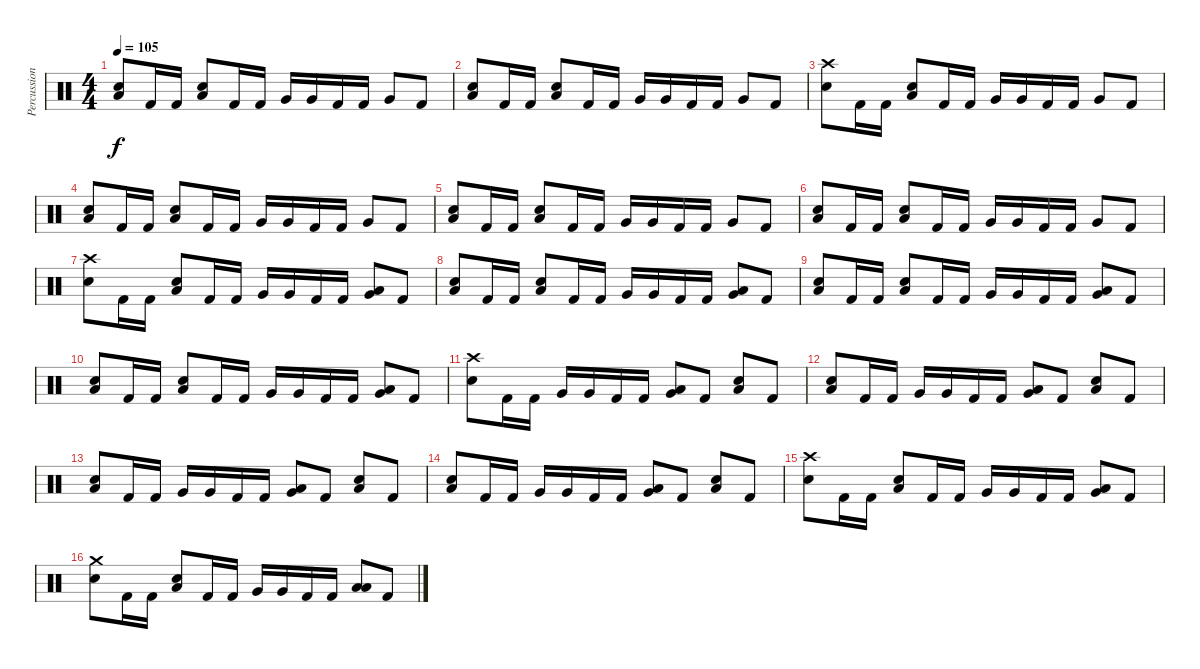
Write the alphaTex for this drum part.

\track ("Percussion" "Percussion") {instrument percussion}
\staff {score}
\articulation defaults
\ts (4 4)
\tempo 105
\clef neutral
\ks c
("Low Floor Tom (hit)" "Snare (hit) 2").8{dy f volume 0} "Kick (hit) 2".16{volume 16} "Kick (hit) 2".16 ("Low Floor Tom (hit)" "Snare (hit) 2").8 "Kick (hit) 2".16 "Kick (hit) 2".16 "Very Low Tom (hit)".16 "Very Low Tom (hit)".16 "Kick (hit) 2".16 "Kick (hit) 2".16 "Very Low Tom (hit)".8 "Kick (hit) 2".8 |
("Low Floor Tom (hit)" "Snare (hit) 2").8 "Kick (hit) 2".16 "Kick (hit) 2".16 ("Low Floor Tom (hit)" "Snare (hit) 2").8 "Kick (hit) 2".16 "Kick (hit) 2".16 "Very Low Tom (hit)".16 "Very Low Tom (hit)".16 "Kick (hit) 2".16 "Kick (hit) 2".16 "Very Low Tom (hit)".8 "Kick (hit) 2".8 |
("Crash high (hit)" "Snare (hit) 2").8 "Kick (hit) 2".16 "Kick (hit) 2".16 ("Low Floor Tom (hit)" "Snare (hit) 2").8 "Kick (hit) 2".16 "Kick (hit) 2".16 "Very Low Tom (hit)".16 "Very Low Tom (hit)".16 "Kick (hit) 2".16 "Kick (hit) 2".16 "Very Low Tom (hit)".8 "Kick (hit) 2".8 |
("Low Floor Tom (hit)" "Snare (hit) 2").8 "Kick (hit) 2".16 "Kick (hit) 2".16 ("Low Floor Tom (hit)" "Snare (hit) 2").8 "Kick (hit) 2".16 "Kick (hit) 2".16 "Very Low Tom (hit)".16 "Very Low Tom (hit)".16 "Kick (hit) 2".16 "Kick (hit) 2".16 "Very Low Tom (hit)".8 "Kick (hit) 2".8 |
("Low Floor Tom (hit)" "Snare (hit) 2").8 "Kick (hit) 2".16 "Kick (hit) 2".16 ("Low Floor Tom (hit)" "Snare (hit) 2").8 "Kick (hit) 2".16 "Kick (hit) 2".16 "Very Low Tom (hit)".16 "Very Low Tom (hit)".16 "Kick (hit) 2".16 "Kick (hit) 2".16 "Very Low Tom (hit)".8 "Kick (hit) 2".8 |
("Low Floor Tom (hit)" "Snare (hit) 2").8 "Kick (hit) 2".16 "Kick (hit) 2".16 ("Low Floor Tom (hit)" "Snare (hit) 2").8 "Kick (hit) 2".16 "Kick (hit) 2".16 "Very Low Tom (hit)".16 "Very Low Tom (hit)".16 "Kick (hit) 2".16 "Kick (hit) 2".16 "Very Low Tom (hit)".8 "Kick (hit) 2".8 |
("Crash high (hit)" "Snare (hit) 2").8 "Kick (hit) 2".16 "Kick (hit) 2".16 ("Low Floor Tom (hit)" "Snare (hit) 2").8 "Kick (hit) 2".16 "Kick (hit) 2".16 "Very Low Tom (hit)".16 "Very Low Tom (hit)".16 "Kick (hit) 2".16 "Kick (hit) 2".16 ("Very Low Tom (hit)" "Low Floor Tom (hit)").8 "Kick (hit) 2".8 |
("Low Floor Tom (hit)" "Snare (hit) 2").8 "Kick (hit) 2".16 "Kick (hit) 2".16 ("Low Floor Tom (hit)" "Snare (hit) 2").8 "Kick (hit) 2".16 "Kick (hit) 2".16 "Very Low Tom (hit)".16 "Very Low Tom (hit)".16 "Kick (hit) 2".16 "Kick (hit) 2".16 ("Very Low Tom (hit)" "Low Floor Tom (hit)").8 "Kick (hit) 2".8 |
("Low Floor Tom (hit)" "Snare (hit) 2").8 "Kick (hit) 2".16 "Kick (hit) 2".16 ("Low Floor Tom (hit)" "Snare (hit) 2").8 "Kick (hit) 2".16 "Kick (hit) 2".16 "Very Low Tom (hit)".16 "Very Low Tom (hit)".16 "Kick (hit) 2".16 "Kick (hit) 2".16 ("Very Low Tom (hit)" "Low Floor Tom (hit)").8 "Kick (hit) 2".8 |
("Low Floor Tom (hit)" "Snare (hit) 2").8 "Kick (hit) 2".16 "Kick (hit) 2".16 ("Low Floor Tom (hit)" "Snare (hit) 2").8 "Kick (hit) 2".16 "Kick (hit) 2".16 "Very Low Tom (hit)".16 "Very Low Tom (hit)".16 "Kick (hit) 2".16 "Kick (hit) 2".16 ("Very Low Tom (hit)" "Low Floor Tom (hit)").8 "Kick (hit) 2".8 |
("Crash high (hit)" "Snare (hit) 2").8 "Kick (hit) 2".16 "Kick (hit) 2".16 "Very Low Tom (hit)".16 "Very Low Tom (hit)".16 "Kick (hit) 2".16 "Kick (hit) 2".16 ("Very Low Tom (hit)" "Low Floor Tom (hit)").8 "Kick (hit) 2".8 ("Low Floor Tom (hit)" "Snare (hit) 2").8 "Kick (hit) 2".8 |
("Low Floor Tom (hit)" "Snare (hit) 2").8 "Kick (hit) 2".16 "Kick (hit) 2".16 "Very Low Tom (hit)".16 "Very Low Tom (hit)".16 "Kick (hit) 2".16 "Kick (hit) 2".16 ("Very Low Tom (hit)" "Low Floor Tom (hit)").8 "Kick (hit) 2".8 ("Low Floor Tom (hit)" "Snare (hit) 2").8 "Kick (hit) 2".8 |
("Low Floor Tom (hit)" "Snare (hit) 2").8 "Kick (hit) 2".16 "Kick (hit) 2".16 "Very Low Tom (hit)".16 "Very Low Tom (hit)".16 "Kick (hit) 2".16 "Kick (hit) 2".16 ("Very Low Tom (hit)" "Low Floor Tom (hit)").8 "Kick (hit) 2".8 ("Low Floor Tom (hit)" "Snare (hit) 2").8 "Kick (hit) 2".8 |
("Low Floor Tom (hit)" "Snare (hit) 2").8 "Kick (hit) 2".16 "Kick (hit) 2".16 "Very Low Tom (hit)".16 "Very Low Tom (hit)".16 "Kick (hit) 2".16 "Kick (hit) 2".16 ("Very Low Tom (hit)" "Low Floor Tom (hit)").8 "Kick (hit) 2".8 ("Low Floor Tom (hit)" "Snare (hit) 2").8 "Kick (hit) 2".8 |
("Crash high (hit)" "Snare (hit) 2").8 "Kick (hit) 2".16 "Kick (hit) 2".16 ("Low Floor Tom (hit)" "Snare (hit) 2").8 "Kick (hit) 2".16 "Kick (hit) 2".16 "Very Low Tom (hit)".16 "Very Low Tom (hit)".16 "Kick (hit) 2".16 "Kick (hit) 2".16 ("Very Low Tom (hit)" "Low Floor Tom (hit)").8 "Kick (hit) 2".8 |
("Crash medium (hit)" "Snare (hit) 2").8 "Kick (hit) 2".16 "Kick (hit) 2".16 ("Low Floor Tom (hit)" "Snare (hit) 2").8 "Kick (hit) 2".16 "Kick (hit) 2".16 "Very Low Tom (hit)".16 "Very Low Tom (hit)".16 "Kick (hit) 2".16 "Kick (hit) 2".16 ("Low Floor Tom (hit)" "Low Floor Tom (hit)").8 "Kick (hit) 2".8
